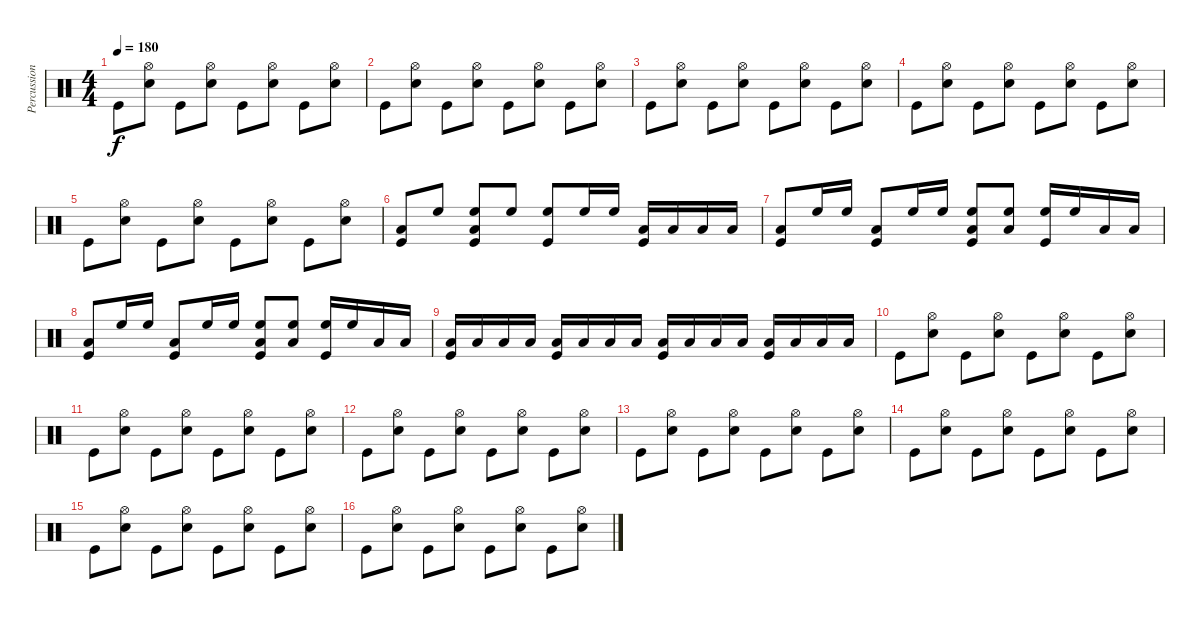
\track ("Percussion" "Percussion") {instrument percussion}
\staff {score}
\articulation defaults
\ts (4 4)
\tempo 180
\clef neutral
\ks c "Kick (hit)".8{dy f}
("Hi-Hat (open)" "Electric Snare (hit)").8 "Kick (hit)".8 ("Hi-Hat (open)" "Electric Snare (hit)").8 "Kick (hit)".8 ("Hi-Hat (open)" "Electric Snare (hit)").8 "Kick (hit)".8 ("Hi-Hat (open)" "Electric Snare (hit)").8 |
"Kick (hit)".8 ("Hi-Hat (open)" "Electric Snare (hit)").8 "Kick (hit)".8 ("Hi-Hat (open)" "Electric Snare (hit)").8 "Kick (hit)".8 ("Hi-Hat (open)" "Electric Snare (hit)").8 "Kick (hit)".8 ("Hi-Hat (open)" "Electric Snare (hit)").8 |
"Kick (hit)".8 ("Hi-Hat (open)" "Electric Snare (hit)").8 "Kick (hit)".8 ("Hi-Hat (open)" "Electric Snare (hit)").8 "Kick (hit)".8 ("Hi-Hat (open)" "Electric Snare (hit)").8 "Kick (hit)".8 ("Hi-Hat (open)" "Electric Snare (hit)").8 |
"Kick (hit)".8 ("Hi-Hat (open)" "Electric Snare (hit)").8 "Kick (hit)".8 ("Hi-Hat (open)" "Electric Snare (hit)").8 "Kick (hit)".8 ("Hi-Hat (open)" "Electric Snare (hit)").8 "Kick (hit)".8 ("Hi-Hat (open)" "Electric Snare (hit)").8 |
"Kick (hit)".8 ("Hi-Hat (open)" "Electric Snare (hit)").8 "Kick (hit)".8 ("Hi-Hat (open)" "Electric Snare (hit)").8 "Kick (hit)".8 ("Hi-Hat (open)" "Electric Snare (hit)").8 "Kick (hit)".8 ("Hi-Hat (open)" "Electric Snare (hit)").8 |
("Low Floor Tom (hit)" "Kick (hit)").8 "High Floor Tom (hit)".8 ("High Floor Tom (hit)" "Low Floor Tom (hit)" "Kick (hit)").8 "High Floor Tom (hit)".8 ("High Floor Tom (hit)" "Kick (hit)").8 "High Floor Tom (hit)".16 "High Floor Tom (hit)".16 ("Low Floor Tom (hit)" "Kick (hit)").16 "Low Floor Tom (hit)".16 "Low Floor Tom (hit)".16 "Low Floor Tom (hit)".16 |
("Low Floor Tom (hit)" "Kick (hit)").8 "High Floor Tom (hit)".16 "High Floor Tom (hit)".16 ("Low Floor Tom (hit)" "Kick (hit)").8 "High Floor Tom (hit)".16 "High Floor Tom (hit)".16 ("High Floor Tom (hit)" "Low Floor Tom (hit)" "Kick (hit)").8 ("High Floor Tom (hit)" "Low Floor Tom (hit)").8 ("High Floor Tom (hit)" "Kick (hit)").16 "High Floor Tom (hit)".16 "Low Floor Tom (hit)".16 "Low Floor Tom (hit)".16 |
("Low Floor Tom (hit)" "Kick (hit)").8 "High Floor Tom (hit)".16 "High Floor Tom (hit)".16 ("Low Floor Tom (hit)" "Kick (hit)").8 "High Floor Tom (hit)".16 "High Floor Tom (hit)".16 ("High Floor Tom (hit)" "Low Floor Tom (hit)" "Kick (hit)").8 ("High Floor Tom (hit)" "Low Floor Tom (hit)").8 ("High Floor Tom (hit)" "Kick (hit)").16 "High Floor Tom (hit)".16 "Low Floor Tom (hit)".16 "Low Floor Tom (hit)".16 |
("Low Floor Tom (hit)" "Kick (hit)").16 "Low Floor Tom (hit)".16 "Low Floor Tom (hit)".16 "Low Floor Tom (hit)".16 ("Low Floor Tom (hit)" "Kick (hit)").16 "Low Floor Tom (hit)".16 "Low Floor Tom (hit)".16 "Low Floor Tom (hit)".16 ("Low Floor Tom (hit)" "Kick (hit)").16 "Low Floor Tom (hit)".16 "Low Floor Tom (hit)".16 "Low Floor Tom (hit)".16 ("Low Floor Tom (hit)" "Kick (hit)").16 "Low Floor Tom (hit)".16 "Low Floor Tom (hit)".16 "Low Floor Tom (hit)".16 |
"Kick (hit)".8 ("Hi-Hat (open)" "Electric Snare (hit)").8 "Kick (hit)".8 ("Hi-Hat (open)" "Electric Snare (hit)").8 "Kick (hit)".8 ("Hi-Hat (open)" "Electric Snare (hit)").8 "Kick (hit)".8 ("Hi-Hat (open)" "Electric Snare (hit)").8 |
"Kick (hit)".8 ("Hi-Hat (open)" "Electric Snare (hit)").8 "Kick (hit)".8 ("Hi-Hat (open)" "Electric Snare (hit)").8 "Kick (hit)".8 ("Hi-Hat (open)" "Electric Snare (hit)").8 "Kick (hit)".8 ("Hi-Hat (open)" "Electric Snare (hit)").8 |
"Kick (hit)".8 ("Hi-Hat (open)" "Electric Snare (hit)").8 "Kick (hit)".8 ("Hi-Hat (open)" "Electric Snare (hit)").8 "Kick (hit)".8 ("Hi-Hat (open)" "Electric Snare (hit)").8 "Kick (hit)".8 ("Hi-Hat (open)" "Electric Snare (hit)").8 |
"Kick (hit)".8 ("Hi-Hat (open)" "Electric Snare (hit)").8 "Kick (hit)".8 ("Hi-Hat (open)" "Electric Snare (hit)").8 "Kick (hit)".8 ("Hi-Hat (open)" "Electric Snare (hit)").8 "Kick (hit)".8 ("Hi-Hat (open)" "Electric Snare (hit)").8 |
"Kick (hit)".8 ("Hi-Hat (open)" "Electric Snare (hit)").8 "Kick (hit)".8 ("Hi-Hat (open)" "Electric Snare (hit)").8 "Kick (hit)".8 ("Hi-Hat (open)" "Electric Snare (hit)").8 "Kick (hit)".8 ("Hi-Hat (open)" "Electric Snare (hit)").8 |
"Kick (hit)".8 ("Hi-Hat (open)" "Electric Snare (hit)").8 "Kick (hit)".8 ("Hi-Hat (open)" "Electric Snare (hit)").8 "Kick (hit)".8 ("Hi-Hat (open)" "Electric Snare (hit)").8 "Kick (hit)".8 ("Hi-Hat (open)" "Electric Snare (hit)").8 |
"Kick (hit)".8 ("Hi-Hat (open)" "Electric Snare (hit)").8 "Kick (hit)".8 ("Hi-Hat (open)" "Electric Snare (hit)").8 "Kick (hit)".8 ("Hi-Hat (open)" "Electric Snare (hit)").8 "Kick (hit)".8 ("Hi-Hat (open)" "Electric Snare (hit)").8
